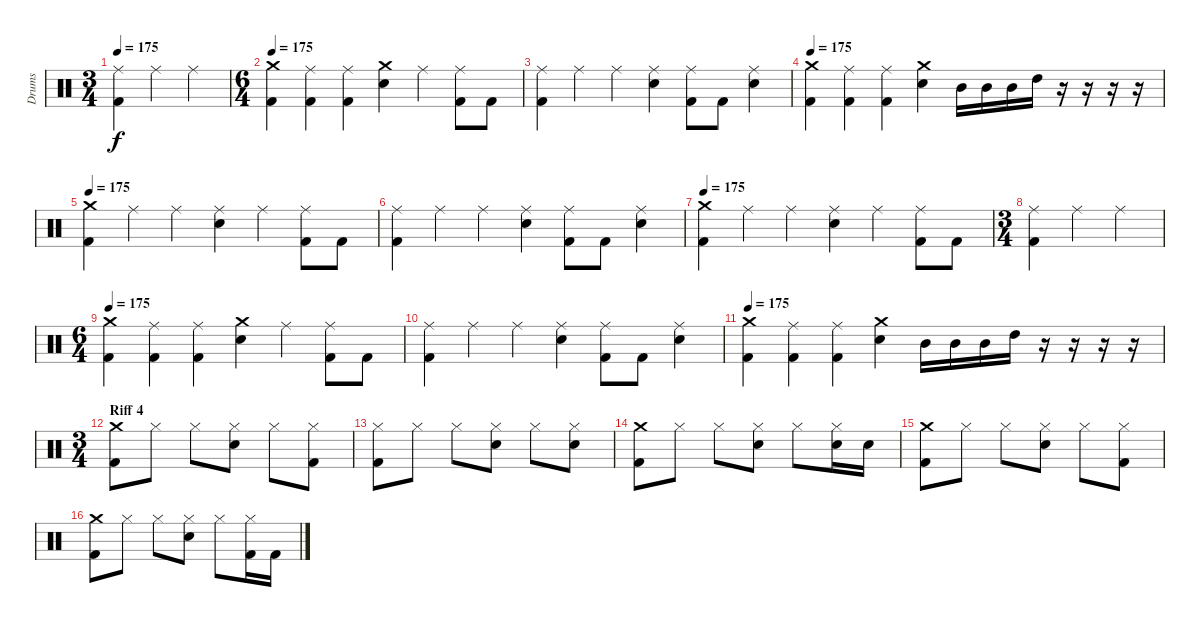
\track ("Drums" "Drums") {instrument percussion}
\staff {score}
\articulation defaults
\ts (3 4)
\tempo 175
\clef neutral
\ks c
("Ride (middle)" "Kick (hit) 2").4{dy f} "Ride (middle)".4 "Ride (middle)".4 |
\ts (6 4)
\tempo 175
("Crash medium (hit)" "Kick (hit) 2").4 ("Ride (middle)" "Kick (hit) 2").4 ("Ride (middle)" "Kick (hit) 2").4 ("Crash medium (hit)" "Electric Snare (hit)").4 "Ride (middle)".4 ("Ride (middle)" "Kick (hit) 2").8 "Kick (hit) 2".8 |
("Ride (middle)" "Kick (hit) 2").4 "Ride (middle)".4 "Ride (middle)".4 ("Ride (middle)" "Electric Snare (hit)").4 ("Ride (middle)" "Kick (hit) 2").8 "Kick (hit) 2".8 ("Ride (middle)" "Electric Snare (hit)").4 |
\tempo 175
("Crash medium (hit)" "Kick (hit) 2").4 ("Ride (middle)" "Kick (hit) 2").4 ("Ride (middle)" "Kick (hit) 2").4 ("Crash medium (hit)" "Electric Snare (hit)").4 "Mid Tom (hit)".16 "Mid Tom (hit)".16 "Mid Tom (hit)".16 "High Tom (hit)".16 r.16 r.16 r.16 r.16 |
\tempo 175
("Crash medium (hit)" "Kick (hit) 2").4 "Ride (middle)".4 "Ride (middle)".4 ("Ride (middle)" "Electric Snare (hit)").4 "Ride (middle)".4 ("Ride (middle)" "Kick (hit) 2").8 "Kick (hit) 2".8 |
("Ride (middle)" "Kick (hit) 2").4 "Ride (middle)".4 "Ride (middle)".4 ("Ride (middle)" "Electric Snare (hit)").4 ("Ride (middle)" "Kick (hit) 2").8 "Kick (hit) 2".8 ("Ride (middle)" "Electric Snare (hit)").4 |
\tempo 175
("Crash medium (hit)" "Kick (hit) 2").4 "Ride (middle)".4 "Ride (middle)".4 ("Ride (middle)" "Electric Snare (hit)").4 "Ride (middle)".4 ("Ride (middle)" "Kick (hit) 2").8 "Kick (hit) 2".8 |
\ts (3 4)
("Ride (middle)" "Kick (hit) 2").4 "Ride (middle)".4 "Ride (middle)".4 |
\ts (6 4)
\tempo 175
("Crash medium (hit)" "Kick (hit) 2").4 ("Ride (middle)" "Kick (hit) 2").4 ("Ride (middle)" "Kick (hit) 2").4 ("Crash medium (hit)" "Electric Snare (hit)").4 "Ride (middle)".4 ("Ride (middle)" "Kick (hit) 2").8 "Kick (hit) 2".8 |
("Ride (middle)" "Kick (hit) 2").4 "Ride (middle)".4 "Ride (middle)".4 ("Ride (middle)" "Electric Snare (hit)").4 ("Ride (middle)" "Kick (hit) 2").8 "Kick (hit) 2".8 ("Ride (middle)" "Electric Snare (hit)").4 |
\tempo 175
("Crash medium (hit)" "Kick (hit) 2").4 ("Ride (middle)" "Kick (hit) 2").4 ("Ride (middle)" "Kick (hit) 2").4 ("Crash medium (hit)" "Electric Snare (hit)").4 "Mid Tom (hit)".16 "Mid Tom (hit)".16 "Mid Tom (hit)".16 "High Tom (hit)".16 r.16 r.16 r.16 r.16 |
\ts (3 4)
\section ("" "Riff 4")
("Crash medium (hit)" "Kick (hit) 2").8 "Hi-Hat (closed)".8 "Hi-Hat (closed)".8 ("Hi-Hat (closed)" "Electric Snare (hit)").8 "Hi-Hat (closed)".8 ("Hi-Hat (closed)" "Kick (hit) 2").8 |
("Hi-Hat (closed)" "Kick (hit) 2").8 "Hi-Hat (closed)".8 "Hi-Hat (closed)".8 ("Hi-Hat (closed)" "Electric Snare (hit)").8 "Hi-Hat (closed)".8 ("Hi-Hat (closed)" "Electric Snare (hit)").8 |
("Crash medium (hit)" "Kick (hit) 2").8 "Hi-Hat (closed)".8 "Hi-Hat (closed)".8 ("Hi-Hat (closed)" "Electric Snare (hit)").8 "Hi-Hat (closed)".8 ("Hi-Hat (closed)" "Electric Snare (hit)").16 "Electric Snare (hit)".16 |
("Crash medium (hit)" "Kick (hit) 2").8 "Hi-Hat (closed)".8 "Hi-Hat (closed)".8 ("Hi-Hat (closed)" "Electric Snare (hit)").8 "Hi-Hat (closed)".8 ("Hi-Hat (closed)" "Kick (hit) 2").8 |
("Crash medium (hit)" "Kick (hit) 2").8 "Hi-Hat (closed)".8 "Hi-Hat (closed)".8 ("Hi-Hat (closed)" "Electric Snare (hit)").8 "Hi-Hat (closed)".8 ("Hi-Hat (closed)" "Kick (hit) 2").16 "Kick (hit) 2".16
